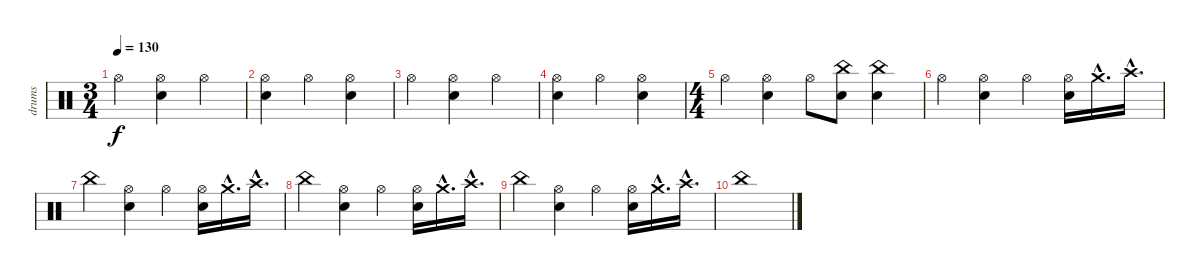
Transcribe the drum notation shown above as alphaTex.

\track ("drums" "drums") {instrument percussion}
\staff {score}
\articulation defaults
\ts (3 4)
\tempo 130
\clef neutral
\ks c "Hi-Hat (open)".4{dy f}
("Snare (hit) 2" "Hi-Hat (open)").4 "Hi-Hat (open)".4 |
("Snare (hit) 2" "Hi-Hat (open)").4 "Hi-Hat (open)".4 ("Snare (hit) 2" "Hi-Hat (open)").4 |
"Hi-Hat (open)".4 ("Snare (hit) 2" "Hi-Hat (open)").4 "Hi-Hat (open)".4 |
("Snare (hit) 2" "Hi-Hat (open)").4 "Hi-Hat (open)".4 ("Snare (hit) 2" "Hi-Hat (open)").4 |
\ts (4 4)
"Hi-Hat (open)".4 ("Snare (hit) 2" "Hi-Hat (open)").4 "Hi-Hat (open)".8 ("China (hit)" "Snare (hit) 2").8 ("China (hit)" "Snare (hit) 2").4 |
"Hi-Hat (open)".4 ("Snare (hit) 2" "Hi-Hat (open)").4 "Hi-Hat (open)".4 ("Snare (hit) 2" "Hi-Hat (open)").16 "Crash medium (hit)"{hac}.16{d} "Crash high (hit)"{hac}.16{d} |
"China (hit)".4 ("Snare (hit) 2" "Hi-Hat (open)").4 "Hi-Hat (open)".4 ("Snare (hit) 2" "Hi-Hat (open)").16 "Crash medium (hit)"{hac}.16{d} "Crash high (hit)"{hac}.16{d} |
"China (hit)".4 ("Snare (hit) 2" "Hi-Hat (open)").4 "Hi-Hat (open)".4 ("Snare (hit) 2" "Hi-Hat (open)").16 "Crash medium (hit)"{hac}.16{d} "Crash high (hit)"{hac}.16{d} |
"China (hit)".4 ("Snare (hit) 2" "Hi-Hat (open)").4 "Hi-Hat (open)".4 ("Snare (hit) 2" "Hi-Hat (open)").16 "Crash medium (hit)"{hac}.16{d} "Crash high (hit)"{hac}.16{d} |
"China (hit)".1
